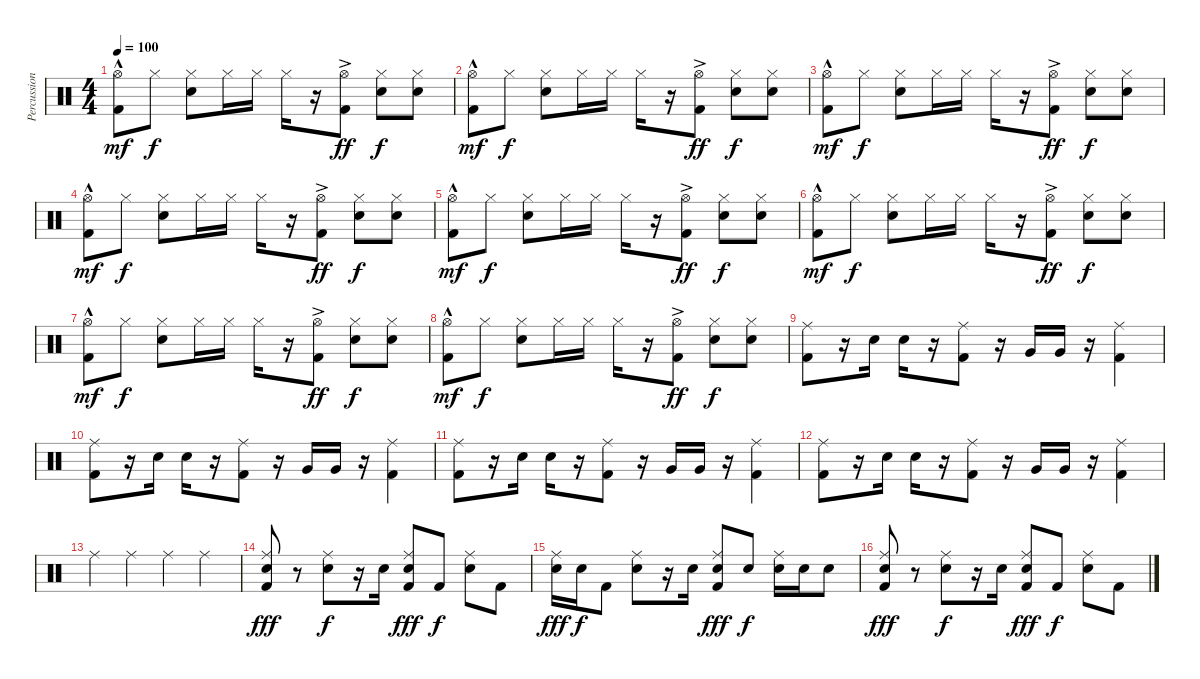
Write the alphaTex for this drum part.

\track ("Percussion" "Percussion") {instrument percussion}
\staff {score}
\articulation defaults
\ts (4 4)
\tempo 100
\clef neutral
\ks c
("Hi-Hat (open)"{hac} "Kick (hit) 2"{hac}).8{dy mf} "Hi-Hat (closed)".8{dy f} ("Hi-Hat (closed)" "Snare (hit) 2").8 "Hi-Hat (closed)".16 "Hi-Hat (closed)".16 "Hi-Hat (closed)".16 r.16 ("Hi-Hat (open)"{ac} "Kick (hit) 2"{ac}).8{dy ff} ("Hi-Hat (closed)" "Snare (hit) 2").8{dy f} ("Hi-Hat (closed)" "Snare (hit) 2").8 |
("Hi-Hat (open)"{hac} "Kick (hit) 2"{hac}).8{dy mf} "Hi-Hat (closed)".8{dy f} ("Hi-Hat (closed)" "Snare (hit) 2").8 "Hi-Hat (closed)".16 "Hi-Hat (closed)".16 "Hi-Hat (closed)".16 r.16 ("Hi-Hat (open)"{ac} "Kick (hit) 2"{ac}).8{dy ff} ("Hi-Hat (closed)" "Snare (hit) 2").8{dy f} ("Hi-Hat (closed)" "Snare (hit) 2").8 |
("Hi-Hat (open)"{hac} "Kick (hit) 2"{hac}).8{dy mf} "Hi-Hat (closed)".8{dy f} ("Hi-Hat (closed)" "Snare (hit) 2").8 "Hi-Hat (closed)".16 "Hi-Hat (closed)".16 "Hi-Hat (closed)".16 r.16 ("Hi-Hat (open)"{ac} "Kick (hit) 2"{ac}).8{dy ff} ("Hi-Hat (closed)" "Snare (hit) 2").8{dy f} ("Hi-Hat (closed)" "Snare (hit) 2").8 |
("Hi-Hat (open)"{hac} "Kick (hit) 2"{hac}).8{dy mf} "Hi-Hat (closed)".8{dy f} ("Hi-Hat (closed)" "Snare (hit) 2").8 "Hi-Hat (closed)".16 "Hi-Hat (closed)".16 "Hi-Hat (closed)".16 r.16 ("Hi-Hat (open)"{ac} "Kick (hit) 2"{ac}).8{dy ff} ("Hi-Hat (closed)" "Snare (hit) 2").8{dy f} ("Hi-Hat (closed)" "Snare (hit) 2").8 |
("Hi-Hat (open)"{hac} "Kick (hit) 2"{hac}).8{dy mf} "Hi-Hat (closed)".8{dy f} ("Hi-Hat (closed)" "Snare (hit) 2").8 "Hi-Hat (closed)".16 "Hi-Hat (closed)".16 "Hi-Hat (closed)".16 r.16 ("Hi-Hat (open)"{ac} "Kick (hit) 2"{ac}).8{dy ff} ("Hi-Hat (closed)" "Snare (hit) 2").8{dy f} ("Hi-Hat (closed)" "Snare (hit) 2").8 |
("Hi-Hat (open)"{hac} "Kick (hit) 2"{hac}).8{dy mf} "Hi-Hat (closed)".8{dy f} ("Hi-Hat (closed)" "Snare (hit) 2").8 "Hi-Hat (closed)".16 "Hi-Hat (closed)".16 "Hi-Hat (closed)".16 r.16 ("Hi-Hat (open)"{ac} "Kick (hit) 2"{ac}).8{dy ff} ("Hi-Hat (closed)" "Snare (hit) 2").8{dy f} ("Hi-Hat (closed)" "Snare (hit) 2").8 |
("Hi-Hat (open)"{hac} "Kick (hit) 2"{hac}).8{dy mf} "Hi-Hat (closed)".8{dy f} ("Hi-Hat (closed)" "Snare (hit) 2").8 "Hi-Hat (closed)".16 "Hi-Hat (closed)".16 "Hi-Hat (closed)".16 r.16 ("Hi-Hat (open)"{ac} "Kick (hit) 2"{ac}).8{dy ff} ("Hi-Hat (closed)" "Snare (hit) 2").8{dy f} ("Hi-Hat (closed)" "Snare (hit) 2").8 |
("Hi-Hat (open)"{hac} "Kick (hit) 2"{hac}).8{dy mf} "Hi-Hat (closed)".8{dy f} ("Hi-Hat (closed)" "Snare (hit) 2").8 "Hi-Hat (closed)".16 "Hi-Hat (closed)".16 "Hi-Hat (closed)".16 r.16 ("Hi-Hat (open)"{ac} "Kick (hit) 2"{ac}).8{dy ff} ("Hi-Hat (closed)" "Snare (hit) 2").8{dy f} ("Hi-Hat (closed)" "Snare (hit) 2").8 |
("Ride (middle)" "Kick (hit) 2").8 r.16 "Snare (hit) 2".16 "Snare (hit) 2".16 r.16 ("Ride (middle)" "Kick (hit) 2").8 r.16 "Very Low Tom (hit)".16 "Very Low Tom (hit)".16 r.16 ("Ride (middle)" "Kick (hit) 2").4 |
("Ride (middle)" "Kick (hit) 2").8 r.16 "Snare (hit) 2".16 "Snare (hit) 2".16 r.16 ("Ride (middle)" "Kick (hit) 2").8 r.16 "Very Low Tom (hit)".16 "Very Low Tom (hit)".16 r.16 ("Ride (middle)" "Kick (hit) 2").4 |
("Ride (middle)" "Kick (hit) 2").8 r.16 "Snare (hit) 2".16 "Snare (hit) 2".16 r.16 ("Ride (middle)" "Kick (hit) 2").8 r.16 "Very Low Tom (hit)".16 "Very Low Tom (hit)".16 r.16 ("Ride (middle)" "Kick (hit) 2").4 |
("Ride (middle)" "Kick (hit) 2").8 r.16 "Snare (hit) 2".16 "Snare (hit) 2".16 r.16 ("Ride (middle)" "Kick (hit) 2").8 r.16 "Very Low Tom (hit)".16 "Very Low Tom (hit)".16 r.16 ("Ride (middle)" "Kick (hit) 2").4 |
"Ride (middle)".4 "Ride (middle)".4 "Ride (middle)".4 "Ride (middle)".4 |
("Ride (middle)" "Hand Clap (hit)" "Kick (hit) 2").8{dy fff} r.8 ("Ride (middle)" "Snare (hit) 2").8{dy f} r.16 "Snare (hit) 2".16 ("Ride (middle)" "Hand Clap (hit)" "Kick (hit) 2").8{dy fff} "Kick (hit) 2".8{dy f} ("Ride (middle)" "Snare (hit) 2").8 "Kick (hit) 2".8 |
("Ride (middle)" "Hand Clap (hit)").16{dy fff} "Snare (hit) 2".16{dy f} "Kick (hit) 2".8 ("Ride (middle)" "Snare (hit) 2").8 r.16 "Snare (hit) 2".16 ("Ride (middle)" "Hand Clap (hit)" "Kick (hit) 2").8{dy fff} "Snare (hit) 2".8{dy f} ("Ride (middle)" "Snare (hit) 2").16 "Snare (hit) 2".16 "Snare (hit) 2".8 |
("Ride (middle)" "Hand Clap (hit)" "Kick (hit) 2").8{dy fff} r.8 ("Ride (middle)" "Snare (hit) 2").8{dy f} r.16 "Snare (hit) 2".16 ("Ride (middle)" "Hand Clap (hit)" "Kick (hit) 2").8{dy fff} "Kick (hit) 2".8{dy f} ("Ride (middle)" "Snare (hit) 2").8 "Kick (hit) 2".8
